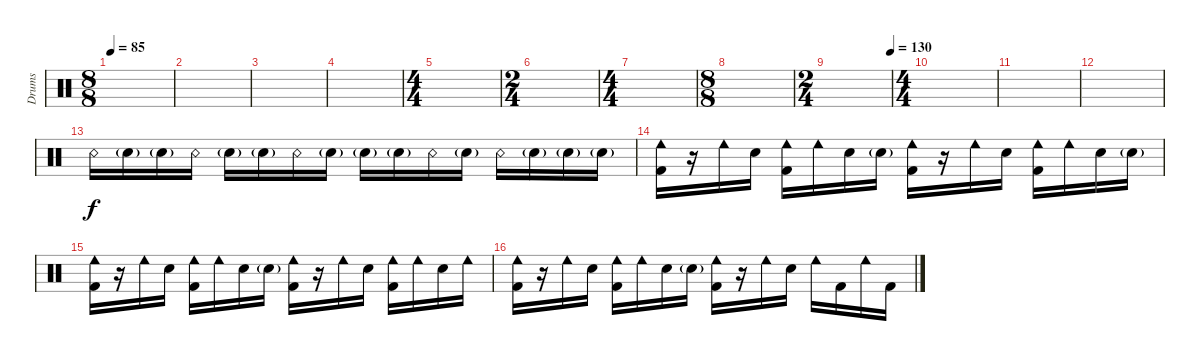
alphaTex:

\defaultSystemsLayout 4
\bracketExtendMode groupsimilarinstruments
\otherSystemsTrackNameOrientation horizontal
\track ("Godd" "Drums") {instrument percussion}
\staff {score}
\articulation defaults
\ts (8 8)
\tempo 85
\clef neutral
\scale
0.333333
\ks c
|
\scale
0.333333 |
\scale
0.263889 |
\scale
0.263889 |
\ts (4 4)
\scale
0.472222 |
\ts (2 4)
\scale
0.263889 |
\ts (4 4)
\scale
0.263889 |
\ts (8 8)
\scale
0.472222 |
\ts (2 4)
\tempo (130 1)
\scale
0.390805 |
\ts (4 4)
\scale
0.390805 |
\scale
0.218391 |
\scale
0.333333 |
\scale
0.333333 "Snare (rim shot)".16 "Snare (hit) 2"{g}.16 "Snare (hit) 2"{g}.16 "Snare (rim shot)".16 "Snare (hit) 2"{g}.16 "Snare (hit) 2"{g}.16 "Snare (rim shot)".16 "Snare (hit) 2"{g}.16 "Snare (hit) 2"{g}.16 "Snare (hit) 2"{g}.16 "Snare (rim shot)".16 "Snare (hit) 2"{g}.16 "Snare (rim shot)".16 "Snare (hit) 2"{g}.16 "Snare (hit) 2"{g}.16 "Snare (hit) 2"{g}.16 |
\scale
0.333333 ("Cowbell low (hit)" "Kick (hit) 2").16 r.16 "Cowbell low (hit)".16 "Snare (hit) 2".16 ("Cowbell low (hit)" "Kick (hit) 2").16 "Cowbell low (hit)".16 "Snare (hit) 2".16 "Snare (hit) 2"{g}.16 ("Cowbell low (hit)" "Kick (hit) 2").16 r.16 "Cowbell low (hit)".16 "Snare (hit) 2".16 ("Cowbell low (hit)" "Kick (hit) 2").16 "Cowbell low (hit)".16 "Snare (hit) 2".16 "Snare (hit) 2"{g}.16 |
\scale
0.333333 ("Cowbell low (hit)" "Kick (hit) 2").16 r.16 "Cowbell low (hit)".16 "Snare (hit) 2".16 ("Cowbell low (hit)" "Kick (hit) 2").16 "Cowbell low (hit)".16 "Snare (hit) 2".16 "Snare (hit) 2"{g}.16 ("Cowbell low (hit)" "Kick (hit) 2").16 r.16 "Cowbell low (hit)".16 "Snare (hit) 2".16 ("Cowbell low (hit)" "Kick (hit) 2").16 "Cowbell low (hit)".16 "Snare (hit) 2".16 "Cowbell low (hit)".16 |
\scale
0.333333 ("Cowbell low (hit)" "Kick (hit) 2").16 r.16 "Cowbell low (hit)".16 "Snare (hit) 2".16 ("Cowbell low (hit)" "Kick (hit) 2").16 "Cowbell low (hit)".16 "Snare (hit) 2".16 "Snare (hit) 2"{g}.16 ("Cowbell low (hit)" "Kick (hit) 2").16 r.16 "Cowbell low (hit)".16 "Snare (hit) 2".16 "Cowbell low (hit)".16 "Kick (hit) 2".16 "Cowbell low (hit)".16 "Kick (hit) 2".16
